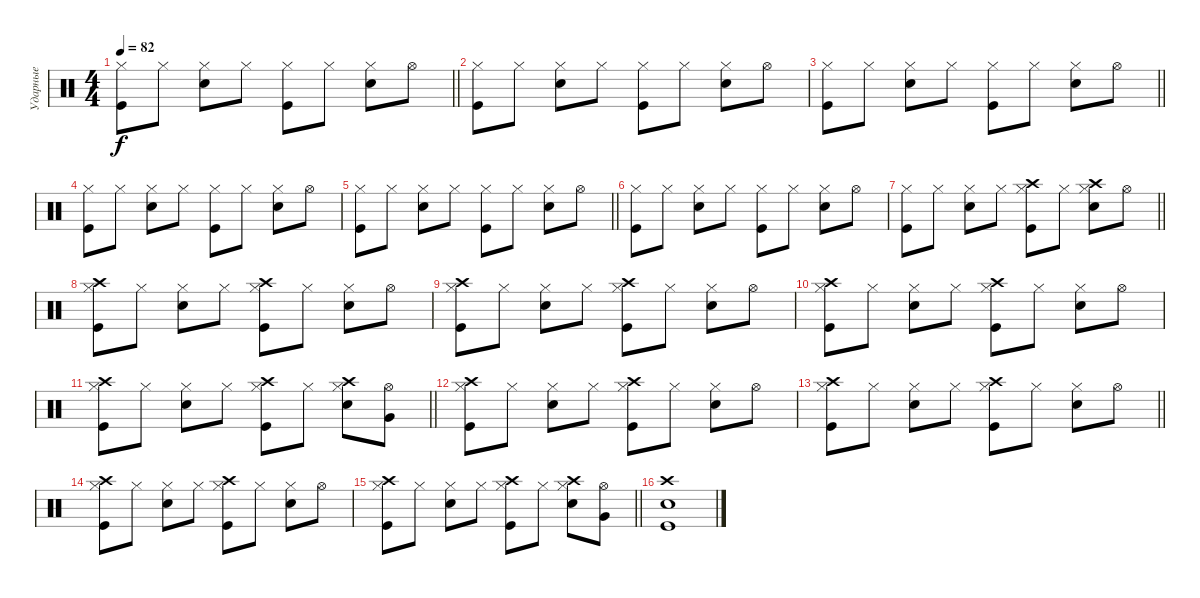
\track ("Ударные" "Ударные") {instrument percussion}
\staff {score}
\articulation defaults
\ts (4 4)
\tempo 82
\clef neutral
\barLineRight lightlight
\ks c
("Kick (hit)" "Hi-Hat (closed)").8{dy f} "Hi-Hat (closed)".8 ("Electric Snare (hit)" "Hi-Hat (closed)").8 "Hi-Hat (closed)".8 ("Kick (hit)" "Hi-Hat (closed)").8 "Hi-Hat (closed)".8 ("Electric Snare (hit)" "Hi-Hat (closed)").8 "Hi-Hat (open)".8 |
("Kick (hit)" "Hi-Hat (closed)").8 "Hi-Hat (closed)".8 ("Electric Snare (hit)" "Hi-Hat (closed)").8 "Hi-Hat (closed)".8 ("Kick (hit)" "Hi-Hat (closed)").8 "Hi-Hat (closed)".8 ("Electric Snare (hit)" "Hi-Hat (closed)").8 "Hi-Hat (open)".8 |
\barLineRight lightlight
("Kick (hit)" "Hi-Hat (closed)").8 "Hi-Hat (closed)".8 ("Electric Snare (hit)" "Hi-Hat (closed)").8 "Hi-Hat (closed)".8 ("Kick (hit)" "Hi-Hat (closed)").8 "Hi-Hat (closed)".8 ("Electric Snare (hit)" "Hi-Hat (closed)").8 "Hi-Hat (open)".8 |
("Kick (hit)" "Hi-Hat (closed)").8 "Hi-Hat (closed)".8 ("Electric Snare (hit)" "Hi-Hat (closed)").8 "Hi-Hat (closed)".8 ("Kick (hit)" "Hi-Hat (closed)").8 "Hi-Hat (closed)".8 ("Electric Snare (hit)" "Hi-Hat (closed)").8 "Hi-Hat (open)".8 |
\barLineRight lightlight
("Kick (hit)" "Hi-Hat (closed)").8 "Hi-Hat (closed)".8 ("Electric Snare (hit)" "Hi-Hat (closed)").8 "Hi-Hat (closed)".8 ("Kick (hit)" "Hi-Hat (closed)").8 "Hi-Hat (closed)".8 ("Electric Snare (hit)" "Hi-Hat (closed)").8 "Hi-Hat (open)".8 |
("Kick (hit)" "Hi-Hat (closed)").8 "Hi-Hat (closed)".8 ("Electric Snare (hit)" "Hi-Hat (closed)").8 "Hi-Hat (closed)".8 ("Kick (hit)" "Hi-Hat (closed)").8 "Hi-Hat (closed)".8 ("Electric Snare (hit)" "Hi-Hat (closed)").8 "Hi-Hat (open)".8 |
\barLineRight lightlight
("Kick (hit)" "Hi-Hat (closed)").8 "Hi-Hat (closed)".8 ("Electric Snare (hit)" "Hi-Hat (closed)").8 "Hi-Hat (closed)".8 ("Kick (hit)" "Crash high (hit)" "Hi-Hat (closed)").8 "Hi-Hat (closed)".8 ("Electric Snare (hit)" "Crash high (hit)" "Hi-Hat (closed)").8 "Hi-Hat (open)".8 |
("Kick (hit)" "Crash high (hit)" "Hi-Hat (closed)").8 "Hi-Hat (closed)".8 ("Electric Snare (hit)" "Hi-Hat (closed)").8 "Hi-Hat (closed)".8 ("Kick (hit)" "Crash high (hit)" "Hi-Hat (closed)").8 "Hi-Hat (closed)".8 ("Electric Snare (hit)" "Hi-Hat (closed)").8 "Hi-Hat (open)".8 |
("Kick (hit)" "Crash high (hit)" "Hi-Hat (closed)").8 "Hi-Hat (closed)".8 ("Electric Snare (hit)" "Hi-Hat (closed)").8 "Hi-Hat (closed)".8 ("Kick (hit)" "Crash high (hit)" "Hi-Hat (closed)").8 "Hi-Hat (closed)".8 ("Electric Snare (hit)" "Hi-Hat (closed)").8 "Hi-Hat (open)".8 |
("Kick (hit)" "Crash high (hit)" "Hi-Hat (closed)").8 "Hi-Hat (closed)".8 ("Electric Snare (hit)" "Hi-Hat (closed)").8 "Hi-Hat (closed)".8 ("Kick (hit)" "Crash high (hit)" "Hi-Hat (closed)").8 "Hi-Hat (closed)".8 ("Electric Snare (hit)" "Hi-Hat (closed)").8 "Hi-Hat (open)".8 |
\barLineRight lightlight
("Kick (hit)" "Crash high (hit)" "Hi-Hat (closed)").8 "Hi-Hat (closed)".8 ("Electric Snare (hit)" "Hi-Hat (closed)").8 "Hi-Hat (closed)".8 ("Kick (hit)" "Crash high (hit)" "Hi-Hat (closed)").8 "Hi-Hat (closed)".8 ("Electric Snare (hit)" "Crash high (hit)" "Hi-Hat (closed)").8 ("Very Low Tom (hit)" "Hi-Hat (open)").8 |
("Kick (hit)" "Crash high (hit)" "Hi-Hat (closed)").8 "Hi-Hat (closed)".8 ("Electric Snare (hit)" "Hi-Hat (closed)").8 "Hi-Hat (closed)".8 ("Kick (hit)" "Crash high (hit)" "Hi-Hat (closed)").8 "Hi-Hat (closed)".8 ("Electric Snare (hit)" "Hi-Hat (closed)").8 "Hi-Hat (open)".8 |
\barLineRight lightlight
("Kick (hit)" "Crash high (hit)" "Hi-Hat (closed)").8 "Hi-Hat (closed)".8 ("Electric Snare (hit)" "Hi-Hat (closed)").8 "Hi-Hat (closed)".8 ("Kick (hit)" "Crash high (hit)" "Hi-Hat (closed)").8 "Hi-Hat (closed)".8 ("Electric Snare (hit)" "Hi-Hat (closed)").8 "Hi-Hat (open)".8 |
("Kick (hit)" "Crash high (hit)" "Hi-Hat (closed)").8 "Hi-Hat (closed)".8 ("Electric Snare (hit)" "Hi-Hat (closed)").8 "Hi-Hat (closed)".8 ("Kick (hit)" "Crash high (hit)" "Hi-Hat (closed)").8 "Hi-Hat (closed)".8 ("Electric Snare (hit)" "Hi-Hat (closed)").8 "Hi-Hat (open)".8 |
\barLineRight lightlight
("Kick (hit)" "Crash high (hit)" "Hi-Hat (closed)").8 "Hi-Hat (closed)".8 ("Electric Snare (hit)" "Hi-Hat (closed)").8 "Hi-Hat (closed)".8 ("Kick (hit)" "Crash high (hit)" "Hi-Hat (closed)").8 "Hi-Hat (closed)".8 ("Electric Snare (hit)" "Crash high (hit)" "Hi-Hat (closed)").8 ("Very Low Tom (hit)" "Hi-Hat (open)").8 |
("Kick (hit)" "Electric Snare (hit)" "Crash high (hit)").1
